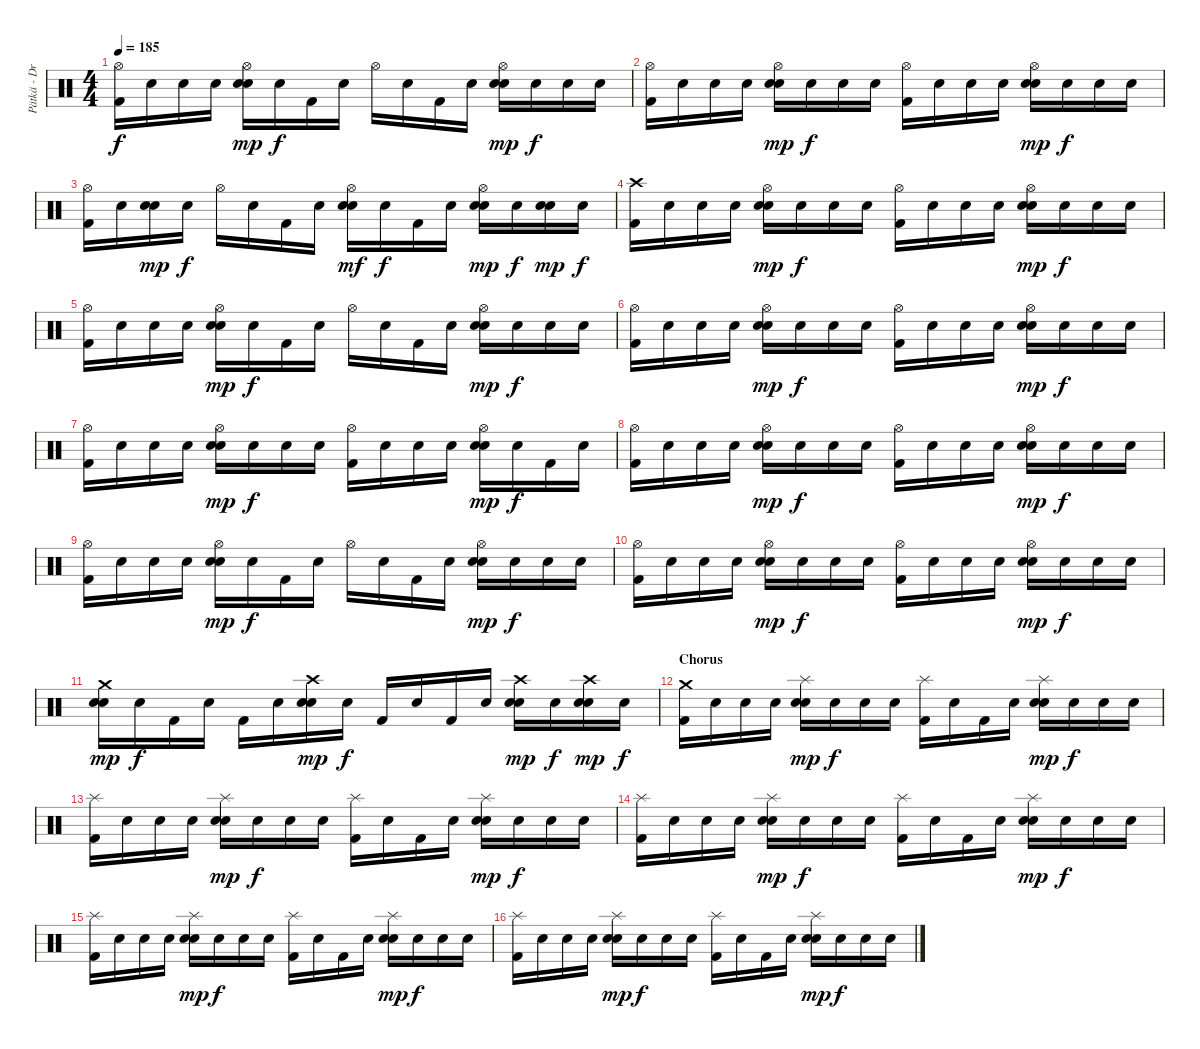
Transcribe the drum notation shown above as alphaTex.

\track ("Pätkä - Drums" "Pätkä - Dr") {instrument percussion}
\staff {score}
\articulation defaults
\ts (4 4)
\tempo 185
\clef neutral
\ks c
("Hi-Hat (open)" "Kick (hit) 2").16{dy f} "Snare (hit)".16 "Snare (hit)".16 "Snare (hit)".16 ("Hi-Hat (open)" "Electric Snare (hit)" "Snare (hit) 2").16{dy mp} "Snare (hit)".16{dy f} "Kick (hit) 2".16 "Snare (hit)".16 "Hi-Hat (open)".16 "Snare (hit)".16 "Kick (hit) 2".16 "Snare (hit)".16 ("Hi-Hat (open)" "Electric Snare (hit)" "Snare (hit) 2").16{dy mp} "Snare (hit)".16{dy f} "Snare (hit)".16 "Snare (hit)".16 |
("Hi-Hat (open)" "Kick (hit) 2").16 "Snare (hit)".16 "Snare (hit)".16 "Snare (hit)".16 ("Hi-Hat (open)" "Electric Snare (hit)" "Snare (hit) 2").16{dy mp} "Snare (hit)".16{dy f} "Snare (hit)".16 "Snare (hit)".16 ("Hi-Hat (open)" "Kick (hit) 2").16 "Snare (hit)".16 "Snare (hit)".16 "Snare (hit)".16 ("Hi-Hat (open)" "Electric Snare (hit)" "Snare (hit) 2").16{dy mp} "Snare (hit)".16{dy f} "Snare (hit)".16 "Snare (hit)".16 |
("Hi-Hat (open)" "Kick (hit) 2").16 "Snare (hit)".16 ("Electric Snare (hit)" "Snare (hit) 2").16{dy mp} "Snare (hit)".16{dy f} "Hi-Hat (open)".16 "Snare (hit)".16 "Kick (hit) 2".16 "Snare (hit)".16 ("Hi-Hat (open)" "Electric Snare (hit)" "Snare (hit) 2").16{dy mf} "Snare (hit)".16{dy f} "Kick (hit) 2".16 "Snare (hit)".16 ("Hi-Hat (open)" "Electric Snare (hit)" "Snare (hit) 2").16{dy mp} "Snare (hit)".16{dy f} ("Electric Snare (hit)" "Snare (hit) 2").16{dy mp} "Snare (hit)".16{dy f} |
("Crash high (hit)" "Kick (hit) 2").16 "Snare (hit)".16 "Snare (hit)".16 "Snare (hit)".16 ("Hi-Hat (open)" "Electric Snare (hit)" "Snare (hit) 2").16{dy mp} "Snare (hit)".16{dy f} "Snare (hit)".16 "Snare (hit)".16 ("Hi-Hat (open)" "Kick (hit) 2").16 "Snare (hit)".16 "Snare (hit)".16 "Snare (hit)".16 ("Hi-Hat (open)" "Electric Snare (hit)" "Snare (hit) 2").16{dy mp} "Snare (hit)".16{dy f} "Snare (hit)".16 "Snare (hit)".16 |
("Hi-Hat (open)" "Kick (hit) 2").16 "Snare (hit)".16 "Snare (hit)".16 "Snare (hit)".16 ("Hi-Hat (open)" "Electric Snare (hit)" "Snare (hit) 2").16{dy mp} "Snare (hit)".16{dy f} "Kick (hit) 2".16 "Snare (hit)".16 "Hi-Hat (open)".16 "Snare (hit)".16 "Kick (hit) 2".16 "Snare (hit)".16 ("Hi-Hat (open)" "Electric Snare (hit)" "Snare (hit) 2").16{dy mp} "Snare (hit)".16{dy f} "Snare (hit)".16 "Snare (hit)".16 |
("Hi-Hat (open)" "Kick (hit) 2").16 "Snare (hit)".16 "Snare (hit)".16 "Snare (hit)".16 ("Hi-Hat (open)" "Electric Snare (hit)" "Snare (hit) 2").16{dy mp} "Snare (hit)".16{dy f} "Snare (hit)".16 "Snare (hit)".16 ("Hi-Hat (open)" "Kick (hit) 2").16 "Snare (hit)".16 "Snare (hit)".16 "Snare (hit)".16 ("Hi-Hat (open)" "Electric Snare (hit)" "Snare (hit) 2").16{dy mp} "Snare (hit)".16{dy f} "Snare (hit)".16 "Snare (hit)".16 |
("Hi-Hat (open)" "Kick (hit) 2").16 "Snare (hit)".16 "Snare (hit)".16 "Snare (hit)".16 ("Hi-Hat (open)" "Electric Snare (hit)" "Snare (hit) 2").16{dy mp} "Snare (hit)".16{dy f} "Snare (hit)".16 "Snare (hit)".16 ("Hi-Hat (open)" "Kick (hit) 2").16 "Snare (hit)".16 "Snare (hit)".16 "Snare (hit)".16 ("Hi-Hat (open)" "Electric Snare (hit)" "Snare (hit) 2").16{dy mp} "Snare (hit)".16{dy f} "Kick (hit) 2".16 "Snare (hit)".16 |
("Hi-Hat (open)" "Kick (hit) 2").16 "Snare (hit)".16 "Snare (hit)".16 "Snare (hit)".16 ("Hi-Hat (open)" "Electric Snare (hit)" "Snare (hit) 2").16{dy mp} "Snare (hit)".16{dy f} "Snare (hit)".16 "Snare (hit)".16 ("Hi-Hat (open)" "Kick (hit) 2").16 "Snare (hit)".16 "Snare (hit)".16 "Snare (hit)".16 ("Hi-Hat (open)" "Electric Snare (hit)" "Snare (hit) 2").16{dy mp} "Snare (hit)".16{dy f} "Snare (hit)".16 "Snare (hit)".16 |
("Hi-Hat (open)" "Kick (hit) 2").16 "Snare (hit)".16 "Snare (hit)".16 "Snare (hit)".16 ("Hi-Hat (open)" "Electric Snare (hit)" "Snare (hit) 2").16{dy mp} "Snare (hit)".16{dy f} "Kick (hit) 2".16 "Snare (hit)".16 "Hi-Hat (open)".16 "Snare (hit)".16 "Kick (hit) 2".16 "Snare (hit)".16 ("Hi-Hat (open)" "Electric Snare (hit)" "Snare (hit) 2").16{dy mp} "Snare (hit)".16{dy f} "Snare (hit)".16 "Snare (hit)".16 |
("Hi-Hat (open)" "Kick (hit) 2").16 "Snare (hit)".16 "Snare (hit)".16 "Snare (hit)".16 ("Hi-Hat (open)" "Electric Snare (hit)" "Snare (hit) 2").16{dy mp} "Snare (hit)".16{dy f} "Snare (hit)".16 "Snare (hit)".16 ("Hi-Hat (open)" "Kick (hit) 2").16 "Snare (hit)".16 "Snare (hit)".16 "Snare (hit)".16 ("Hi-Hat (open)" "Electric Snare (hit)" "Snare (hit) 2").16{dy mp} "Snare (hit)".16{dy f} "Snare (hit)".16 "Snare (hit)".16 |
("Crash medium (hit)" "Electric Snare (hit)" "Snare (hit) 2").16{dy mp} "Snare (hit)".16{dy f} "Kick (hit) 2".16 "Snare (hit)".16 "Kick (hit) 2".16 "Snare (hit)".16 ("Crash high (hit)" "Electric Snare (hit)" "Snare (hit) 2").16{dy mp} "Snare (hit)".16{dy f} "Kick (hit) 2".16 "Snare (hit)".16 "Kick (hit) 2".16 "Snare (hit)".16 ("Crash high (hit)" "Electric Snare (hit)" "Snare (hit) 2").16{dy mp} "Snare (hit)".16{dy f} ("Crash high (hit)" "Electric Snare (hit)" "Snare (hit) 2").16{dy mp} "Snare (hit)".16{dy f} |
\section ("" "Chorus")
("Crash medium (hit)" "Kick (hit) 2").16{volume 16 balance 8} "Snare (hit)".16 "Snare (hit)".16 "Snare (hit)".16 ("Splash (hit)" "Electric Snare (hit)" "Snare (hit) 2").16{dy mp} "Snare (hit)".16{dy f} "Snare (hit)".16 "Snare (hit)".16 ("Splash (hit)" "Kick (hit) 2").16 "Snare (hit)".16 "Kick (hit) 2".16 "Snare (hit)".16 ("Splash (hit)" "Electric Snare (hit)" "Snare (hit) 2").16{dy mp} "Snare (hit)".16{dy f} "Snare (hit)".16 "Snare (hit)".16 |
("Splash (hit)" "Kick (hit) 2").16 "Snare (hit)".16 "Snare (hit)".16 "Snare (hit)".16 ("Splash (hit)" "Electric Snare (hit)" "Snare (hit) 2").16{dy mp} "Snare (hit)".16{dy f} "Snare (hit)".16 "Snare (hit)".16 ("Splash (hit)" "Kick (hit) 2").16 "Snare (hit)".16 "Kick (hit) 2".16 "Snare (hit)".16 ("Splash (hit)" "Electric Snare (hit)" "Snare (hit) 2").16{dy mp} "Snare (hit)".16{dy f} "Snare (hit)".16 "Snare (hit)".16 |
("Splash (hit)" "Kick (hit) 2").16 "Snare (hit)".16 "Snare (hit)".16 "Snare (hit)".16 ("Splash (hit)" "Electric Snare (hit)" "Snare (hit) 2").16{dy mp} "Snare (hit)".16{dy f} "Snare (hit)".16 "Snare (hit)".16 ("Splash (hit)" "Kick (hit) 2").16 "Snare (hit)".16 "Kick (hit) 2".16 "Snare (hit)".16 ("Splash (hit)" "Electric Snare (hit)" "Snare (hit) 2").16{dy mp} "Snare (hit)".16{dy f} "Snare (hit)".16 "Snare (hit)".16 |
("Splash (hit)" "Kick (hit) 2").16 "Snare (hit)".16 "Snare (hit)".16 "Snare (hit)".16 ("Splash (hit)" "Electric Snare (hit)" "Snare (hit) 2").16{dy mp} "Snare (hit)".16{dy f} "Snare (hit)".16 "Snare (hit)".16 ("Splash (hit)" "Kick (hit) 2").16 "Snare (hit)".16 "Kick (hit) 2".16 "Snare (hit)".16 ("Splash (hit)" "Electric Snare (hit)" "Snare (hit) 2").16{dy mp} "Snare (hit)".16{dy f} "Snare (hit)".16 "Snare (hit)".16 |
("Splash (hit)" "Kick (hit) 2").16 "Snare (hit)".16 "Snare (hit)".16 "Snare (hit)".16 ("Splash (hit)" "Electric Snare (hit)" "Snare (hit) 2").16{dy mp} "Snare (hit)".16{dy f} "Snare (hit)".16 "Snare (hit)".16 ("Splash (hit)" "Kick (hit) 2").16 "Snare (hit)".16 "Kick (hit) 2".16 "Snare (hit)".16 ("Splash (hit)" "Electric Snare (hit)" "Snare (hit) 2").16{dy mp} "Snare (hit)".16{dy f} "Snare (hit)".16 "Snare (hit)".16
